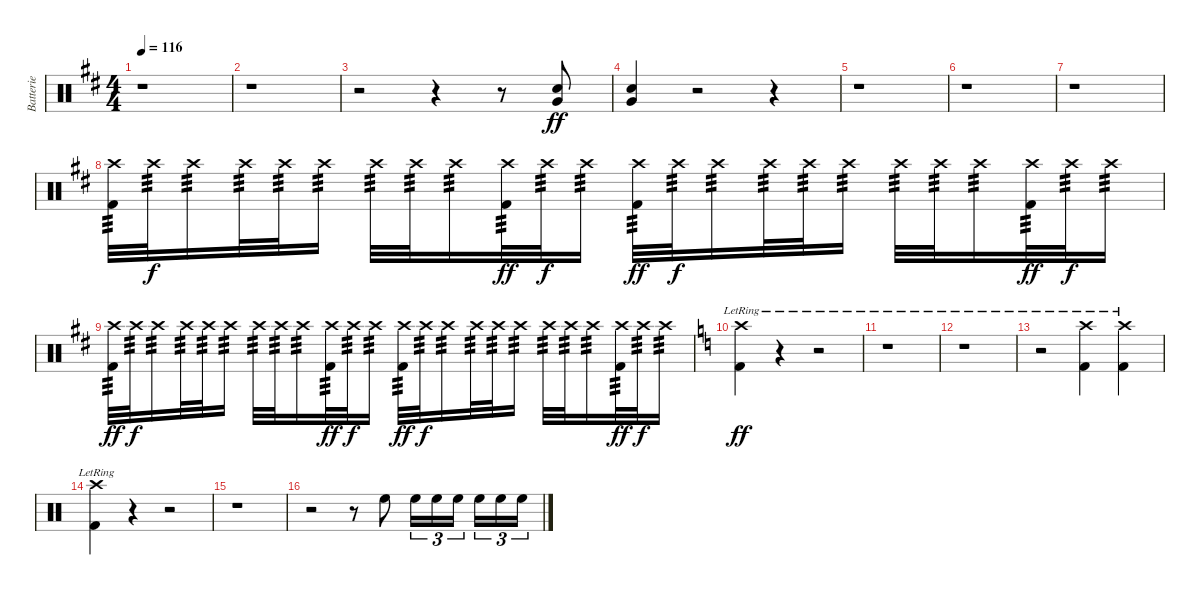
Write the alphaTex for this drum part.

\track ("Batterie" "Batterie") {instrument percussion}
\staff {score}
\articulation defaults
\ts (4 4)
\tempo 116
\clef neutral
\ks d
r.1{dy ff} |
r.1 |
r.2 r.4 r.8 ("Very Low Tom (hit)" "Snare (hit) 2").8 |
("Very Low Tom (hit)" "Snare (hit) 2").4 r.2 r.4 |
r.1 |
r.1 |
r.1{volume 5} |
("Crash high (hit)" "Kick (hit) 2").32{tp 3 volume 14} "Crash high (hit)".32{tp 3 dy f} "Crash high (hit)".16{tp 3} "Crash high (hit)".32{tp 3} "Crash high (hit)".32{tp 3} "Crash high (hit)".16{tp 3} "Crash high (hit)".32{tp 3} "Crash high (hit)".32{tp 3} "Crash high (hit)".16{tp 3} ("Crash high (hit)" "Kick (hit) 2").32{tp 3 dy ff} "Crash high (hit)".32{tp 3 dy f} "Crash high (hit)".16{tp 3} ("Crash high (hit)" "Kick (hit) 2").32{tp 3 dy ff} "Crash high (hit)".32{tp 3 dy f} "Crash high (hit)".16{tp 3} "Crash high (hit)".32{tp 3} "Crash high (hit)".32{tp 3} "Crash high (hit)".16{tp 3} "Crash high (hit)".32{tp 3} "Crash high (hit)".32{tp 3} "Crash high (hit)".16{tp 3} ("Crash high (hit)" "Kick (hit) 2").32{tp 3 dy ff} "Crash high (hit)".32{tp 3 dy f} "Crash high (hit)".16{tp 3} |
("Crash high (hit)" "Kick (hit) 2").32{tp 3 dy ff} "Crash high (hit)".32{tp 3 dy f} "Crash high (hit)".16{tp 3} "Crash high (hit)".32{tp 3} "Crash high (hit)".32{tp 3} "Crash high (hit)".16{tp 3} "Crash high (hit)".32{tp 3} "Crash high (hit)".32{tp 3} "Crash high (hit)".16{tp 3} ("Crash high (hit)" "Kick (hit) 2").32{tp 3 dy ff} "Crash high (hit)".32{tp 3 dy f} "Crash high (hit)".16{tp 3} ("Crash high (hit)" "Kick (hit) 2").32{tp 3 dy ff} "Crash high (hit)".32{tp 3 dy f} "Crash high (hit)".16{tp 3} "Crash high (hit)".32{tp 3} "Crash high (hit)".32{tp 3} "Crash high (hit)".16{tp 3} "Crash high (hit)".32{tp 3} "Crash high (hit)".32{tp 3} "Crash high (hit)".16{tp 3} ("Crash high (hit)" "Kick (hit) 2").32{tp 3 dy ff} "Crash high (hit)".32{tp 3 dy f} "Crash high (hit)".16{tp 3} |
\ks c
("Crash high (hit)"{lr} "Kick (hit) 2"{lr}).4{dy ff} r.4 r.2 |
r.1 |
r.1 |
r.2 ("Crash high (hit)"{lr} "Kick (hit) 2"{lr}).4 ("Crash high (hit)"{lr} "Kick (hit) 2"{lr}).4 |
("Crash high (hit)"{lr} "Kick (hit) 2"{lr}).4 r.4 r.2 |
r.1{volume 5} |
r.2 r.8{volume 15} "High Floor Tom (hit)".8 "High Floor Tom (hit)".16{tu (3 2)} "High Floor Tom (hit)".16{tu (3 2)} "High Floor Tom (hit)".16{tu (3 2) beam splitsecondary} "High Floor Tom (hit)".16{tu (3 2)} "High Floor Tom (hit)".16{tu (3 2)} "High Floor Tom (hit)".16{tu (3 2)}
